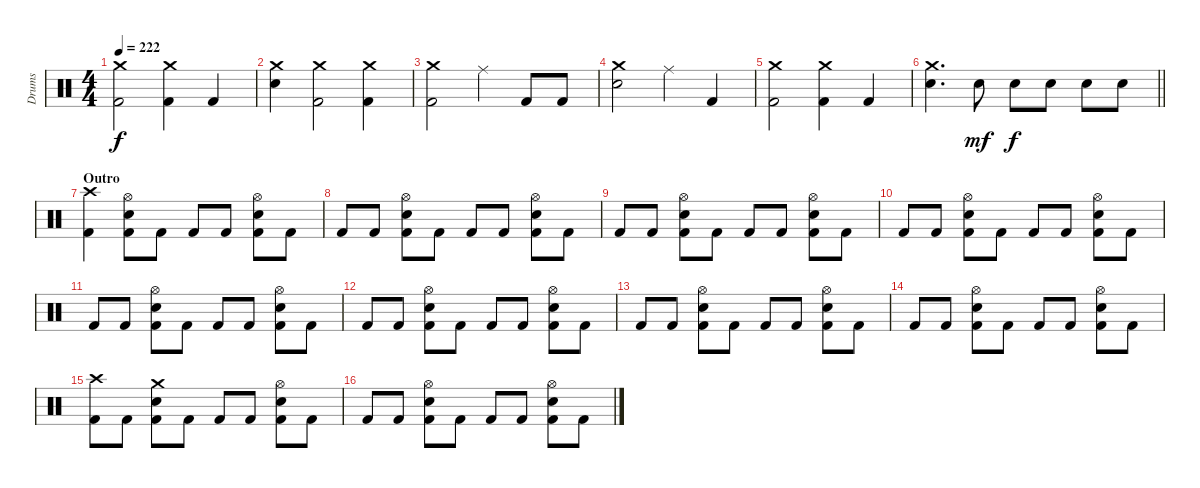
\track ("Drums" "Drums") {instrument percussion}
\staff {score}
\articulation defaults
\ts (4 4)
\tempo 222
\clef neutral
\ks c
("Crash medium (hit)" "Kick (hit) 2").2{dy f} ("Crash medium (hit)" "Kick (hit) 2").4 "Kick (hit) 2".4 |
("Crash medium (hit)" "Snare (hit) 2").4 ("Crash medium (hit)" "Kick (hit) 2").2 ("Crash medium (hit)" "Kick (hit) 2").4 |
("Crash medium (hit)" "Kick (hit) 2").2 "Ride (middle)".4 "Kick (hit) 2".8 "Kick (hit) 2".8 |
("Crash medium (hit)" "Snare (hit) 2").2 "Ride (middle)".4 "Kick (hit) 2".4 |
("Crash medium (hit)" "Kick (hit) 2").2 ("Crash medium (hit)" "Kick (hit) 2").4 "Kick (hit) 2".4 |
\barLineRight lightlight
("Crash medium (hit)" "Snare (hit) 2").4{d} "Snare (hit) 2".8{dy mf} "Snare (hit) 2".8{dy f} "Snare (hit) 2".8 "Snare (hit) 2".8 "Snare (hit) 2".8 |
\section ("" "Outro")
("Crash high (hit)" "Kick (hit) 2").4 ("Hi-Hat (open)" "Snare (hit) 2" "Kick (hit) 2").8 "Kick (hit) 2".8 "Kick (hit) 2".8 "Kick (hit) 2".8 ("Hi-Hat (open)" "Snare (hit) 2" "Kick (hit) 2").8 "Kick (hit) 2".8 |
"Kick (hit) 2".8 "Kick (hit) 2".8 ("Hi-Hat (open)" "Snare (hit) 2" "Kick (hit) 2").8 "Kick (hit) 2".8 "Kick (hit) 2".8 "Kick (hit) 2".8 ("Hi-Hat (open)" "Snare (hit) 2" "Kick (hit) 2").8 "Kick (hit) 2".8 |
"Kick (hit) 2".8 "Kick (hit) 2".8 ("Hi-Hat (open)" "Snare (hit) 2" "Kick (hit) 2").8 "Kick (hit) 2".8 "Kick (hit) 2".8 "Kick (hit) 2".8 ("Hi-Hat (open)" "Snare (hit) 2" "Kick (hit) 2").8 "Kick (hit) 2".8 |
"Kick (hit) 2".8 "Kick (hit) 2".8 ("Hi-Hat (open)" "Snare (hit) 2" "Kick (hit) 2").8 "Kick (hit) 2".8 "Kick (hit) 2".8 "Kick (hit) 2".8 ("Hi-Hat (open)" "Snare (hit) 2" "Kick (hit) 2").8 "Kick (hit) 2".8 |
"Kick (hit) 2".8 "Kick (hit) 2".8 ("Hi-Hat (open)" "Snare (hit) 2" "Kick (hit) 2").8 "Kick (hit) 2".8 "Kick (hit) 2".8 "Kick (hit) 2".8 ("Hi-Hat (open)" "Snare (hit) 2" "Kick (hit) 2").8 "Kick (hit) 2".8 |
"Kick (hit) 2".8 "Kick (hit) 2".8 ("Hi-Hat (open)" "Snare (hit) 2" "Kick (hit) 2").8 "Kick (hit) 2".8 "Kick (hit) 2".8 "Kick (hit) 2".8 ("Hi-Hat (open)" "Snare (hit) 2" "Kick (hit) 2").8 "Kick (hit) 2".8 |
"Kick (hit) 2".8 "Kick (hit) 2".8 ("Hi-Hat (open)" "Snare (hit) 2" "Kick (hit) 2").8 "Kick (hit) 2".8 "Kick (hit) 2".8 "Kick (hit) 2".8 ("Hi-Hat (open)" "Snare (hit) 2" "Kick (hit) 2").8 "Kick (hit) 2".8 |
"Kick (hit) 2".8 "Kick (hit) 2".8 ("Hi-Hat (open)" "Snare (hit) 2" "Kick (hit) 2").8 "Kick (hit) 2".8 "Kick (hit) 2".8 "Kick (hit) 2".8 ("Hi-Hat (open)" "Snare (hit) 2" "Kick (hit) 2").8 "Kick (hit) 2".8 |
("Crash high (hit)" "Kick (hit) 2").8 "Kick (hit) 2".8 ("Crash medium (hit)" "Snare (hit) 2" "Kick (hit) 2").8 "Kick (hit) 2".8 "Kick (hit) 2".8 "Kick (hit) 2".8 ("Hi-Hat (open)" "Snare (hit) 2" "Kick (hit) 2").8 "Kick (hit) 2".8 |
"Kick (hit) 2".8 "Kick (hit) 2".8 ("Hi-Hat (open)" "Snare (hit) 2" "Kick (hit) 2").8 "Kick (hit) 2".8 "Kick (hit) 2".8 "Kick (hit) 2".8 ("Hi-Hat (open)" "Snare (hit) 2" "Kick (hit) 2").8 "Kick (hit) 2".8
